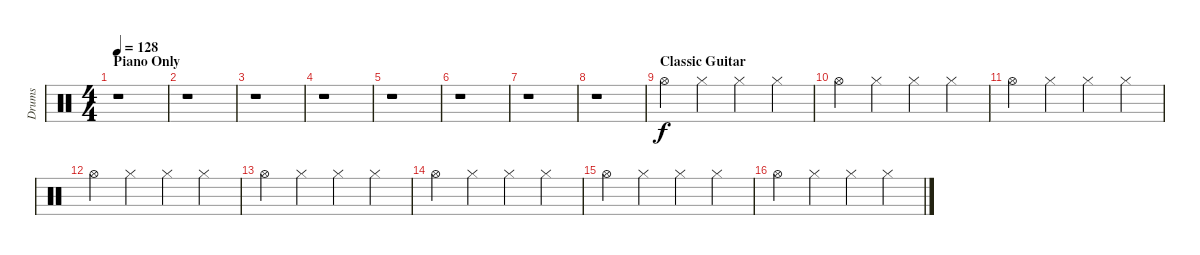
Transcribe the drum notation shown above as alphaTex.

\track ("Drums" "Drums") {instrument percussion}
\staff {score}
\articulation defaults
\ts (4 4)
\section ("" "Piano Only")
\tempo 128
\clef neutral
\ks c
r.1{dy f} |
r.1 |
r.1 |
r.1 |
r.1 |
r.1 |
r.1 |
r.1 |
\section ("" "Classic Guitar")
"Hi-Hat (open)".4 "Hi-Hat (closed)".4 "Hi-Hat (closed)".4 "Hi-Hat (closed)".4 |
"Hi-Hat (open)".4 "Hi-Hat (closed)".4 "Hi-Hat (closed)".4 "Hi-Hat (closed)".4 |
"Hi-Hat (open)".4 "Hi-Hat (closed)".4 "Hi-Hat (closed)".4 "Hi-Hat (closed)".4 |
"Hi-Hat (open)".4 "Hi-Hat (closed)".4 "Hi-Hat (closed)".4 "Hi-Hat (closed)".4 |
"Hi-Hat (open)".4 "Hi-Hat (closed)".4 "Hi-Hat (closed)".4 "Hi-Hat (closed)".4 |
"Hi-Hat (open)".4 "Hi-Hat (closed)".4 "Hi-Hat (closed)".4 "Hi-Hat (closed)".4 |
"Hi-Hat (open)".4 "Hi-Hat (closed)".4 "Hi-Hat (closed)".4 "Hi-Hat (closed)".4 |
"Hi-Hat (open)".4 "Hi-Hat (closed)".4 "Hi-Hat (closed)".4 "Hi-Hat (closed)".4
